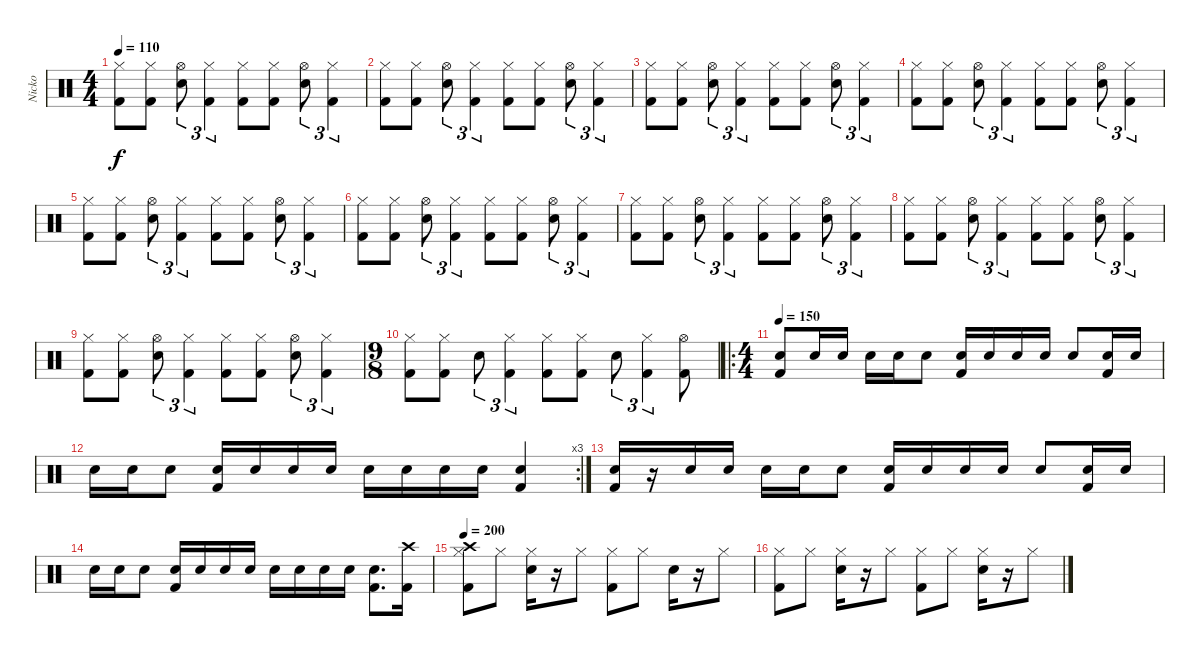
\track ("Nicko" "Nicko") {instrument percussion}
\staff {score}
\articulation defaults
\ts (4 4)
\tempo 110
\clef neutral
\ks c
("Kick (hit) 2" "Hi-Hat (closed)").8{dy f} ("Kick (hit) 2" "Hi-Hat (closed)").8 ("Snare (hit) 2" "Hi-Hat (open)").8{tu (3 2)} ("Kick (hit) 2" "Hi-Hat (closed)").4{tu (3 2)} ("Kick (hit) 2" "Hi-Hat (closed)").8 ("Kick (hit) 2" "Hi-Hat (closed)").8 ("Snare (hit) 2" "Hi-Hat (open)").8{tu (3 2)} ("Kick (hit) 2" "Hi-Hat (closed)").4{tu (3 2)} |
("Kick (hit) 2" "Hi-Hat (closed)").8 ("Kick (hit) 2" "Hi-Hat (closed)").8 ("Snare (hit) 2" "Hi-Hat (open)").8{tu (3 2)} ("Kick (hit) 2" "Hi-Hat (closed)").4{tu (3 2)} ("Kick (hit) 2" "Hi-Hat (closed)").8 ("Kick (hit) 2" "Hi-Hat (closed)").8 ("Snare (hit) 2" "Hi-Hat (open)").8{tu (3 2)} ("Kick (hit) 2" "Hi-Hat (closed)").4{tu (3 2)} |
("Kick (hit) 2" "Hi-Hat (closed)").8 ("Kick (hit) 2" "Hi-Hat (closed)").8 ("Snare (hit) 2" "Hi-Hat (open)").8{tu (3 2)} ("Kick (hit) 2" "Hi-Hat (closed)").4{tu (3 2)} ("Kick (hit) 2" "Hi-Hat (closed)").8 ("Kick (hit) 2" "Hi-Hat (closed)").8 ("Snare (hit) 2" "Hi-Hat (open)").8{tu (3 2)} ("Kick (hit) 2" "Hi-Hat (closed)").4{tu (3 2)} |
("Kick (hit) 2" "Hi-Hat (closed)").8 ("Kick (hit) 2" "Hi-Hat (closed)").8 ("Snare (hit) 2" "Hi-Hat (open)").8{tu (3 2)} ("Kick (hit) 2" "Hi-Hat (closed)").4{tu (3 2)} ("Kick (hit) 2" "Hi-Hat (closed)").8 ("Kick (hit) 2" "Hi-Hat (closed)").8 ("Snare (hit) 2" "Hi-Hat (open)").8{tu (3 2)} ("Kick (hit) 2" "Hi-Hat (closed)").4{tu (3 2)} |
("Kick (hit) 2" "Hi-Hat (closed)").8 ("Kick (hit) 2" "Hi-Hat (closed)").8 ("Snare (hit) 2" "Hi-Hat (open)").8{tu (3 2)} ("Kick (hit) 2" "Hi-Hat (closed)").4{tu (3 2)} ("Kick (hit) 2" "Hi-Hat (closed)").8 ("Kick (hit) 2" "Hi-Hat (closed)").8 ("Snare (hit) 2" "Hi-Hat (open)").8{tu (3 2)} ("Kick (hit) 2" "Hi-Hat (closed)").4{tu (3 2)} |
("Kick (hit) 2" "Hi-Hat (closed)").8 ("Kick (hit) 2" "Hi-Hat (closed)").8 ("Snare (hit) 2" "Hi-Hat (open)").8{tu (3 2)} ("Kick (hit) 2" "Hi-Hat (closed)").4{tu (3 2)} ("Kick (hit) 2" "Hi-Hat (closed)").8 ("Kick (hit) 2" "Hi-Hat (closed)").8 ("Snare (hit) 2" "Hi-Hat (open)").8{tu (3 2)} ("Kick (hit) 2" "Hi-Hat (closed)").4{tu (3 2)} |
("Kick (hit) 2" "Hi-Hat (closed)").8 ("Kick (hit) 2" "Hi-Hat (closed)").8 ("Snare (hit) 2" "Hi-Hat (open)").8{tu (3 2)} ("Kick (hit) 2" "Hi-Hat (closed)").4{tu (3 2)} ("Kick (hit) 2" "Hi-Hat (closed)").8 ("Kick (hit) 2" "Hi-Hat (closed)").8 ("Snare (hit) 2" "Hi-Hat (open)").8{tu (3 2)} ("Kick (hit) 2" "Hi-Hat (closed)").4{tu (3 2)} |
("Kick (hit) 2" "Hi-Hat (closed)").8 ("Kick (hit) 2" "Hi-Hat (closed)").8 ("Snare (hit) 2" "Hi-Hat (open)").8{tu (3 2)} ("Kick (hit) 2" "Hi-Hat (closed)").4{tu (3 2)} ("Kick (hit) 2" "Hi-Hat (closed)").8 ("Kick (hit) 2" "Hi-Hat (closed)").8 ("Snare (hit) 2" "Hi-Hat (open)").8{tu (3 2)} ("Kick (hit) 2" "Hi-Hat (closed)").4{tu (3 2)} |
("Kick (hit) 2" "Hi-Hat (closed)").8 ("Kick (hit) 2" "Hi-Hat (closed)").8 ("Snare (hit) 2" "Hi-Hat (open)").8{tu (3 2)} ("Kick (hit) 2" "Hi-Hat (closed)").4{tu (3 2)} ("Kick (hit) 2" "Hi-Hat (closed)").8 ("Kick (hit) 2" "Hi-Hat (closed)").8 ("Snare (hit) 2" "Hi-Hat (open)").8{tu (3 2)} ("Kick (hit) 2" "Hi-Hat (closed)").4{tu (3 2)} |
\ts (9 8)
("Kick (hit) 2" "Hi-Hat (closed)").8 ("Kick (hit) 2" "Hi-Hat (closed)").8 "Snare (hit) 2".8{tu (3 2)} ("Kick (hit) 2" "Hi-Hat (closed)").4{tu (3 2)} ("Kick (hit) 2" "Hi-Hat (closed)").8 ("Kick (hit) 2" "Hi-Hat (closed)").8 "Snare (hit) 2".8{tu (3 2)} ("Kick (hit) 2" "Hi-Hat (closed)").4{tu (3 2)} ("Kick (hit) 2" "Hi-Hat (open)").8 |
\ro
\ts (4 4)
\tempo 138
\tempo 150
("Electric Snare (hit)" "Kick (hit) 2").8 "Electric Snare (hit)".16 "Electric Snare (hit)".16 "Electric Snare (hit)".16 "Electric Snare (hit)".16 "Electric Snare (hit)".8 ("Electric Snare (hit)" "Kick (hit) 2").16 "Electric Snare (hit)".16 "Electric Snare (hit)".16 "Electric Snare (hit)".16 "Electric Snare (hit)".8 ("Electric Snare (hit)" "Kick (hit) 2").16 "Electric Snare (hit)".16 |
\rc 3 "Electric Snare (hit)".16 "Electric Snare (hit)".16 "Electric Snare (hit)".8
("Electric Snare (hit)" "Kick (hit) 2").16 "Electric Snare (hit)".16 "Electric Snare (hit)".16 "Electric Snare (hit)".16 "Electric Snare (hit)".16 "Electric Snare (hit)".16 "Electric Snare (hit)".16 "Electric Snare (hit)".16 ("Electric Snare (hit)" "Kick (hit) 2").4 |
("Electric Snare (hit)" "Kick (hit) 2").16 r.16 "Electric Snare (hit)".16 "Electric Snare (hit)".16 "Electric Snare (hit)".16 "Electric Snare (hit)".16 "Electric Snare (hit)".8 ("Electric Snare (hit)" "Kick (hit) 2").16 "Electric Snare (hit)".16 "Electric Snare (hit)".16 "Electric Snare (hit)".16 "Electric Snare (hit)".8 ("Electric Snare (hit)" "Kick (hit) 2").16 "Electric Snare (hit)".16 |
"Electric Snare (hit)".16 "Electric Snare (hit)".16 "Electric Snare (hit)".8 ("Electric Snare (hit)" "Kick (hit) 2").16 "Electric Snare (hit)".16 "Electric Snare (hit)".16 "Electric Snare (hit)".16 "Electric Snare (hit)".16 "Electric Snare (hit)".16 "Electric Snare (hit)".16 "Electric Snare (hit)".16 ("Electric Snare (hit)" "Kick (hit) 2").8{d} ("Crash high (hit)" "Kick (hit) 2").16 |
\tempo 200
("Kick (hit) 2" "Hi-Hat (closed)" "Crash high (hit)").8 "Hi-Hat (closed)".8 ("Snare (hit) 2" "Hi-Hat (closed)").16 r.16 "Hi-Hat (closed)".8 ("Kick (hit) 2" "Hi-Hat (closed)").8 "Hi-Hat (closed)".8 "Snare (hit) 2".16 r.16 "Hi-Hat (closed)".8 |
("Kick (hit) 2" "Hi-Hat (closed)").8 "Hi-Hat (closed)".8 ("Snare (hit) 2" "Hi-Hat (closed)").16 r.16 "Hi-Hat (closed)".8 ("Kick (hit) 2" "Hi-Hat (closed)").8 "Hi-Hat (closed)".8 ("Snare (hit) 2" "Hi-Hat (closed)").16 r.16 "Hi-Hat (closed)".8
